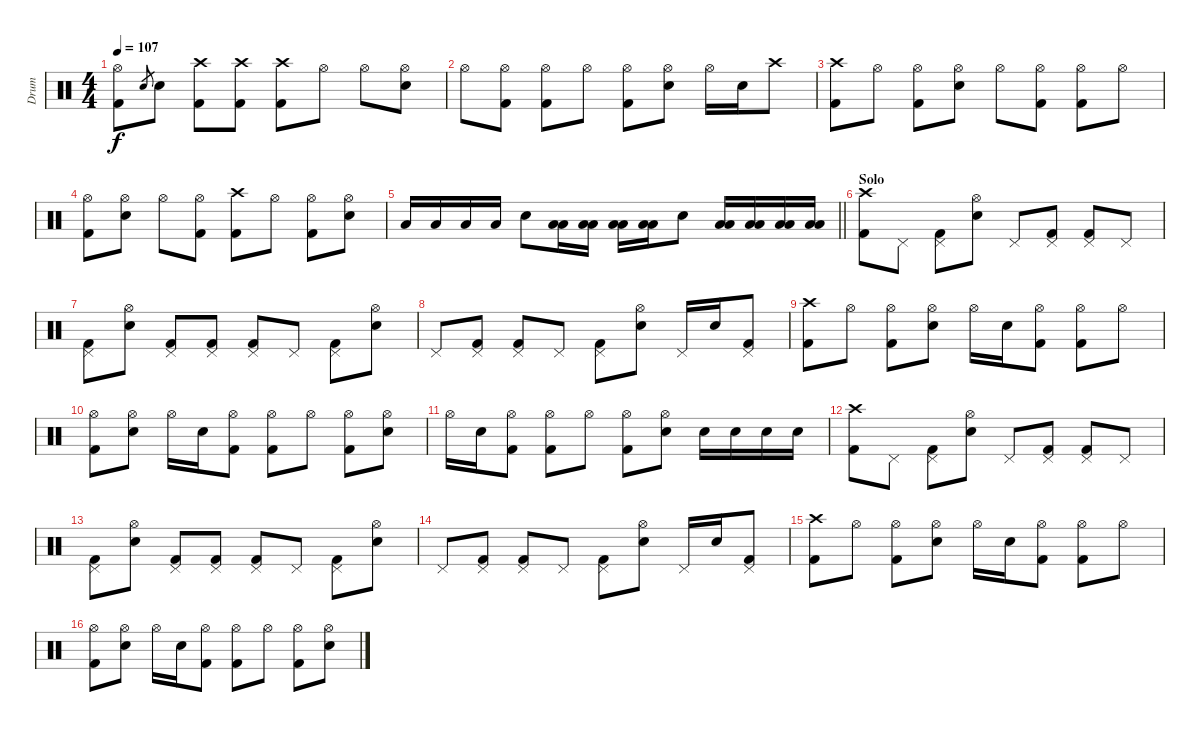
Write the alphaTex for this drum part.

\track ("Drum" "Drum") {instrument percussion}
\staff {score}
\articulation defaults
\ts (4 4)
\tempo 107
\clef neutral
\ks c
("Hi-Hat (open)" "Kick (hit) 2").8{dy f} "Electric Snare (hit)".8{gr} "Electric Snare (hit)".8 ("Crash high (hit)" "Kick (hit) 2").8 ("Crash high (hit)" "Kick (hit) 2").8 ("Crash high (hit)" "Kick (hit) 2").8 "Hi-Hat (open)".8 "Hi-Hat (open)".8 ("Hi-Hat (open)" "Electric Snare (hit)").8 |
"Hi-Hat (open)".8 ("Hi-Hat (open)" "Kick (hit) 2").8 ("Hi-Hat (open)" "Kick (hit) 2").8 "Hi-Hat (open)".8 ("Hi-Hat (open)" "Kick (hit) 2").8 ("Hi-Hat (open)" "Electric Snare (hit)").8 "Hi-Hat (open)".16 "Electric Snare (hit)".16 "Crash high (hit)".8 |
("Crash high (hit)" "Kick (hit) 2").8 "Hi-Hat (open)".8 ("Hi-Hat (open)" "Kick (hit) 2").8 ("Hi-Hat (open)" "Electric Snare (hit)").8 "Hi-Hat (open)".8 ("Hi-Hat (open)" "Kick (hit) 2").8 ("Hi-Hat (open)" "Kick (hit) 2").8 "Hi-Hat (open)".8 |
("Hi-Hat (open)" "Kick (hit) 2").8 ("Hi-Hat (open)" "Electric Snare (hit)").8 "Hi-Hat (open)".8 ("Hi-Hat (open)" "Kick (hit) 2").8 ("Crash high (hit)" "Kick (hit) 2").8 "Hi-Hat (open)".8 ("Hi-Hat (open)" "Kick (hit) 2").8 ("Hi-Hat (open)" "Electric Snare (hit)").8 |
\barLineRight lightlight "Low Tom (hit)".16 "Low Tom (hit)".16 "Low Tom (hit)".16 "Low Tom (hit)".16 "Electric Snare (hit)".8
("Low Tom (hit)" "Low Floor Tom (hit)").16 ("Low Tom (hit)" "Low Floor Tom (hit)").16 ("Low Tom (hit)" "Low Floor Tom (hit)").16 ("Low Tom (hit)" "Low Floor Tom (hit)").16 "Electric Snare (hit)".8 ("Low Floor Tom (hit)" "Low Tom (hit)").16 ("Low Floor Tom (hit)" "Low Tom (hit)").16 ("Low Floor Tom (hit)" "Low Tom (hit)").16 ("Low Floor Tom (hit)" "Low Tom (hit)").16 |
\section ("" "Solo")
("Crash high (hit)" "Kick (hit) 2").8 "Pedal Hi-Hat (hit)".8 ("Pedal Hi-Hat (hit)" "Kick (hit) 2").8 ("Hi-Hat (open)" "Electric Snare (hit)").8 "Pedal Hi-Hat (hit)".8 ("Pedal Hi-Hat (hit)" "Kick (hit) 2").8 ("Pedal Hi-Hat (hit)" "Kick (hit) 2").8 "Pedal Hi-Hat (hit)".8 |
("Pedal Hi-Hat (hit)" "Kick (hit) 2").8 ("Hi-Hat (open)" "Electric Snare (hit)").8 ("Pedal Hi-Hat (hit)" "Kick (hit) 2").8 ("Pedal Hi-Hat (hit)" "Kick (hit) 2").8 ("Pedal Hi-Hat (hit)" "Kick (hit) 2").8 "Pedal Hi-Hat (hit)".8 ("Pedal Hi-Hat (hit)" "Kick (hit) 2").8 ("Hi-Hat (open)" "Electric Snare (hit)").8 |
"Pedal Hi-Hat (hit)".8 ("Pedal Hi-Hat (hit)" "Kick (hit) 2").8 ("Pedal Hi-Hat (hit)" "Kick (hit) 2").8 "Pedal Hi-Hat (hit)".8 ("Pedal Hi-Hat (hit)" "Kick (hit) 2").8 ("Hi-Hat (open)" "Electric Snare (hit)").8 "Pedal Hi-Hat (hit)".16 "Electric Snare (hit)".16 ("Pedal Hi-Hat (hit)" "Kick (hit) 2").8 |
("Crash high (hit)" "Kick (hit) 2").8 "Hi-Hat (open)".8 ("Hi-Hat (open)" "Kick (hit) 2").8 ("Hi-Hat (open)" "Electric Snare (hit)").8 "Hi-Hat (open)".16 "Electric Snare (hit)".16 ("Hi-Hat (open)" "Kick (hit) 2").8 ("Hi-Hat (open)" "Kick (hit) 2").8 "Hi-Hat (open)".8 |
("Hi-Hat (open)" "Kick (hit) 2").8 ("Hi-Hat (open)" "Electric Snare (hit)").8 "Hi-Hat (open)".16 "Electric Snare (hit)".16 ("Hi-Hat (open)" "Kick (hit) 2").8 ("Hi-Hat (open)" "Kick (hit) 2").8 "Hi-Hat (open)".8 ("Hi-Hat (open)" "Kick (hit) 2").8 ("Hi-Hat (open)" "Electric Snare (hit)").8 |
"Hi-Hat (open)".16 "Electric Snare (hit)".16 ("Hi-Hat (open)" "Kick (hit) 2").8 ("Hi-Hat (open)" "Kick (hit) 2").8 "Hi-Hat (open)".8 ("Hi-Hat (open)" "Kick (hit) 2").8 ("Hi-Hat (open)" "Electric Snare (hit)").8 "Electric Snare (hit)".16 "Electric Snare (hit)".16 "Electric Snare (hit)".16 "Electric Snare (hit)".16 |
("Crash high (hit)" "Kick (hit) 2").8 "Pedal Hi-Hat (hit)".8 ("Pedal Hi-Hat (hit)" "Kick (hit) 2").8 ("Hi-Hat (open)" "Electric Snare (hit)").8 "Pedal Hi-Hat (hit)".8 ("Pedal Hi-Hat (hit)" "Kick (hit) 2").8 ("Pedal Hi-Hat (hit)" "Kick (hit) 2").8 "Pedal Hi-Hat (hit)".8 |
("Pedal Hi-Hat (hit)" "Kick (hit) 2").8 ("Hi-Hat (open)" "Electric Snare (hit)").8 ("Pedal Hi-Hat (hit)" "Kick (hit) 2").8 ("Pedal Hi-Hat (hit)" "Kick (hit) 2").8 ("Pedal Hi-Hat (hit)" "Kick (hit) 2").8 "Pedal Hi-Hat (hit)".8 ("Pedal Hi-Hat (hit)" "Kick (hit) 2").8 ("Hi-Hat (open)" "Electric Snare (hit)").8 |
"Pedal Hi-Hat (hit)".8 ("Pedal Hi-Hat (hit)" "Kick (hit) 2").8 ("Pedal Hi-Hat (hit)" "Kick (hit) 2").8 "Pedal Hi-Hat (hit)".8 ("Pedal Hi-Hat (hit)" "Kick (hit) 2").8 ("Hi-Hat (open)" "Electric Snare (hit)").8 "Pedal Hi-Hat (hit)".16 "Electric Snare (hit)".16 ("Pedal Hi-Hat (hit)" "Kick (hit) 2").8 |
("Crash high (hit)" "Kick (hit) 2").8 "Hi-Hat (open)".8 ("Hi-Hat (open)" "Kick (hit) 2").8 ("Hi-Hat (open)" "Electric Snare (hit)").8 "Hi-Hat (open)".16 "Electric Snare (hit)".16 ("Hi-Hat (open)" "Kick (hit) 2").8 ("Hi-Hat (open)" "Kick (hit) 2").8 "Hi-Hat (open)".8 |
("Hi-Hat (open)" "Kick (hit) 2").8 ("Hi-Hat (open)" "Electric Snare (hit)").8 "Hi-Hat (open)".16 "Electric Snare (hit)".16 ("Hi-Hat (open)" "Kick (hit) 2").8 ("Hi-Hat (open)" "Kick (hit) 2").8 "Hi-Hat (open)".8 ("Hi-Hat (open)" "Kick (hit) 2").8 ("Hi-Hat (open)" "Electric Snare (hit)").8
